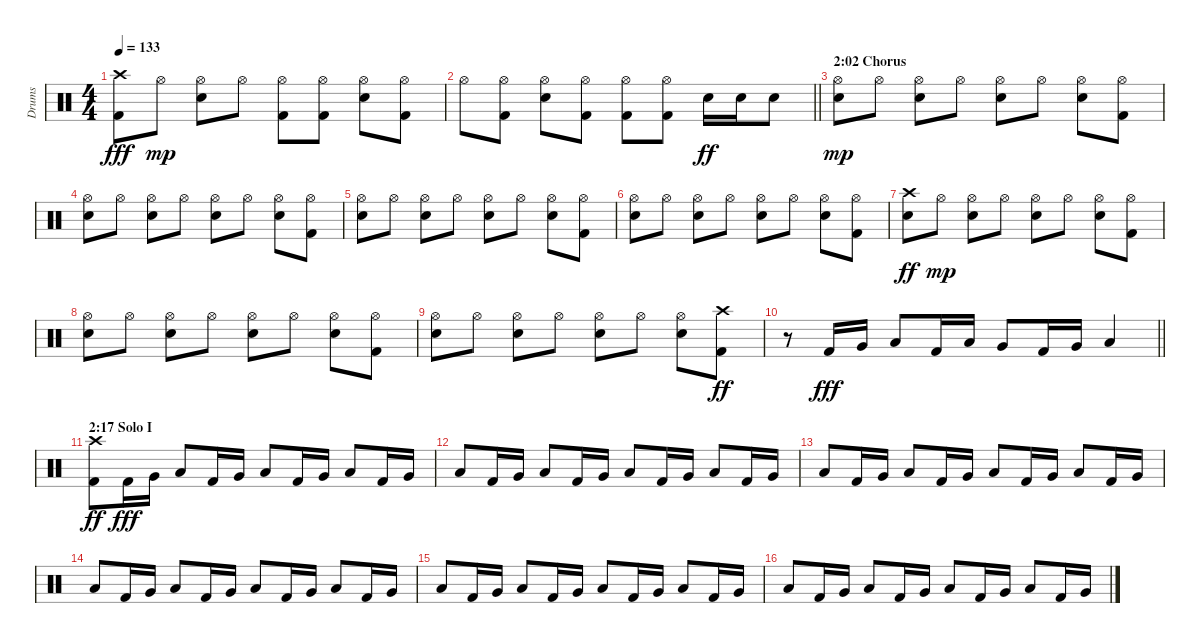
\track ("Drums" "Drums") {instrument percussion}
\staff {score}
\articulation defaults
\ts (4 4)
\tempo 133
\clef neutral
\ks c
("Kick (hit) 2" "Crash high (hit)").8{dy fff} "Hi-Hat (open)".8{dy mp} ("Electric Snare (hit)" "Hi-Hat (open)").8 "Hi-Hat (open)".8 ("Kick (hit) 2" "Hi-Hat (open)").8 ("Kick (hit) 2" "Hi-Hat (open)").8 ("Electric Snare (hit)" "Hi-Hat (open)").8 ("Kick (hit) 2" "Hi-Hat (open)").8 |
\barLineRight lightlight "Hi-Hat (open)".8
("Kick (hit) 2" "Hi-Hat (open)").8 ("Electric Snare (hit)" "Hi-Hat (open)").8 ("Kick (hit) 2" "Hi-Hat (open)").8 ("Kick (hit) 2" "Hi-Hat (open)").8 ("Kick (hit) 2" "Hi-Hat (open)").8 "Electric Snare (hit)".16{dy ff} "Electric Snare (hit)".16 "Electric Snare (hit)".8 |
\section ("" "2:02 Chorus")
("Electric Snare (hit)" "Hi-Hat (open)").8{dy mp} "Hi-Hat (open)".8 ("Electric Snare (hit)" "Hi-Hat (open)").8 "Hi-Hat (open)".8 ("Electric Snare (hit)" "Hi-Hat (open)").8 "Hi-Hat (open)".8 ("Electric Snare (hit)" "Hi-Hat (open)").8 ("Kick (hit) 2" "Hi-Hat (open)").8 |
("Electric Snare (hit)" "Hi-Hat (open)").8 "Hi-Hat (open)".8 ("Electric Snare (hit)" "Hi-Hat (open)").8 "Hi-Hat (open)".8 ("Electric Snare (hit)" "Hi-Hat (open)").8 "Hi-Hat (open)".8 ("Electric Snare (hit)" "Hi-Hat (open)").8 ("Kick (hit) 2" "Hi-Hat (open)").8 |
("Electric Snare (hit)" "Hi-Hat (open)").8 "Hi-Hat (open)".8 ("Electric Snare (hit)" "Hi-Hat (open)").8 "Hi-Hat (open)".8 ("Electric Snare (hit)" "Hi-Hat (open)").8 "Hi-Hat (open)".8 ("Electric Snare (hit)" "Hi-Hat (open)").8 ("Kick (hit) 2" "Hi-Hat (open)").8 |
("Electric Snare (hit)" "Hi-Hat (open)").8 "Hi-Hat (open)".8 ("Electric Snare (hit)" "Hi-Hat (open)").8 "Hi-Hat (open)".8 ("Electric Snare (hit)" "Hi-Hat (open)").8 "Hi-Hat (open)".8 ("Electric Snare (hit)" "Hi-Hat (open)").8 ("Kick (hit) 2" "Hi-Hat (open)").8 |
("Electric Snare (hit)" "Crash high (hit)").8{dy ff} "Hi-Hat (open)".8{dy mp} ("Electric Snare (hit)" "Hi-Hat (open)").8 "Hi-Hat (open)".8 ("Electric Snare (hit)" "Hi-Hat (open)").8 "Hi-Hat (open)".8 ("Electric Snare (hit)" "Hi-Hat (open)").8 ("Kick (hit) 2" "Hi-Hat (open)").8 |
("Electric Snare (hit)" "Hi-Hat (open)").8 "Hi-Hat (open)".8 ("Electric Snare (hit)" "Hi-Hat (open)").8 "Hi-Hat (open)".8 ("Electric Snare (hit)" "Hi-Hat (open)").8 "Hi-Hat (open)".8 ("Electric Snare (hit)" "Hi-Hat (open)").8 ("Kick (hit) 2" "Hi-Hat (open)").8 |
("Electric Snare (hit)" "Hi-Hat (open)").8 "Hi-Hat (open)".8 ("Electric Snare (hit)" "Hi-Hat (open)").8 "Hi-Hat (open)".8 ("Electric Snare (hit)" "Hi-Hat (open)").8 "Hi-Hat (open)".8 ("Electric Snare (hit)" "Hi-Hat (open)").8 ("Kick (hit) 2" "Crash high (hit)").8{dy ff} |
\barLineRight lightlight
r.8 "Kick (hit) 2".16{dy fff} "Very Low Tom (hit)".16 "Low Tom (hit)".8 "Kick (hit) 2".16 "Low Tom (hit)".16 "Very Low Tom (hit)".8 "Kick (hit) 2".16 "Very Low Tom (hit)".16 "Low Tom (hit)".4 |
\section ("" "2:17 Solo I")
("Kick (hit) 2" "Crash high (hit)").8{dy ff} "Kick (hit) 2".16{dy fff} "Very Low Tom (hit)".16 "Low Tom (hit)".8 "Kick (hit) 2".16 "Very Low Tom (hit)".16 "Low Tom (hit)".8 "Kick (hit) 2".16 "Very Low Tom (hit)".16 "Low Tom (hit)".8 "Kick (hit) 2".16 "Very Low Tom (hit)".16 |
"Low Tom (hit)".8 "Kick (hit) 2".16 "Very Low Tom (hit)".16 "Low Tom (hit)".8 "Kick (hit) 2".16 "Very Low Tom (hit)".16 "Low Tom (hit)".8 "Kick (hit) 2".16 "Very Low Tom (hit)".16 "Low Tom (hit)".8 "Kick (hit) 2".16 "Very Low Tom (hit)".16 |
"Low Tom (hit)".8 "Kick (hit) 2".16 "Very Low Tom (hit)".16 "Low Tom (hit)".8 "Kick (hit) 2".16 "Very Low Tom (hit)".16 "Low Tom (hit)".8 "Kick (hit) 2".16 "Very Low Tom (hit)".16 "Low Tom (hit)".8 "Kick (hit) 2".16 "Very Low Tom (hit)".16 |
"Low Tom (hit)".8 "Kick (hit) 2".16 "Very Low Tom (hit)".16 "Low Tom (hit)".8 "Kick (hit) 2".16 "Very Low Tom (hit)".16 "Low Tom (hit)".8 "Kick (hit) 2".16 "Very Low Tom (hit)".16 "Low Tom (hit)".8 "Kick (hit) 2".16 "Very Low Tom (hit)".16 |
"Low Tom (hit)".8 "Kick (hit) 2".16 "Very Low Tom (hit)".16 "Low Tom (hit)".8 "Kick (hit) 2".16 "Very Low Tom (hit)".16 "Low Tom (hit)".8 "Kick (hit) 2".16 "Very Low Tom (hit)".16 "Low Tom (hit)".8 "Kick (hit) 2".16 "Very Low Tom (hit)".16 |
"Low Tom (hit)".8 "Kick (hit) 2".16 "Very Low Tom (hit)".16 "Low Tom (hit)".8 "Kick (hit) 2".16 "Very Low Tom (hit)".16 "Low Tom (hit)".8 "Kick (hit) 2".16 "Very Low Tom (hit)".16 "Low Tom (hit)".8 "Kick (hit) 2".16 "Very Low Tom (hit)".16
